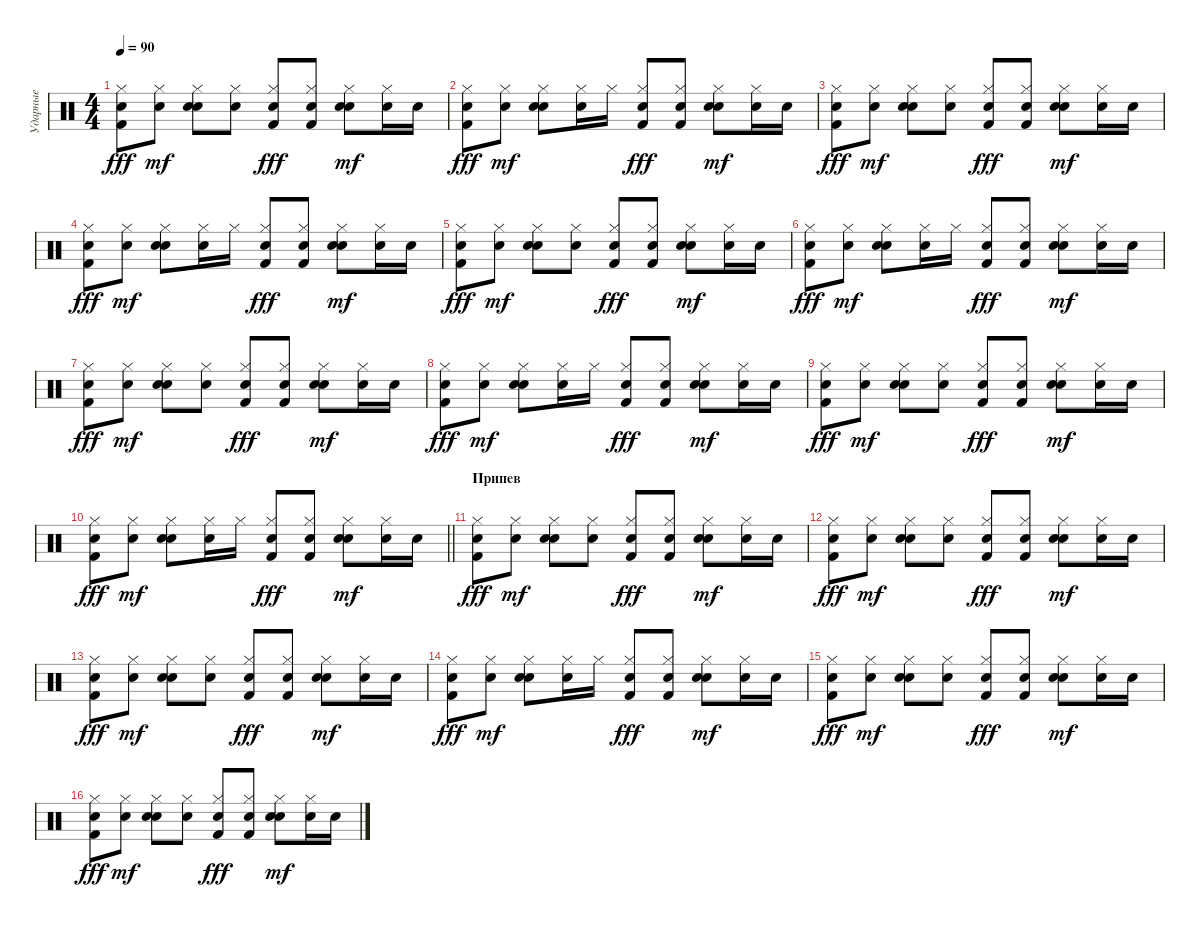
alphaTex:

\track ("Ударные" "Ударные") {instrument percussion}
\staff {score}
\articulation defaults
\ts (4 4)
\tempo 90
\clef neutral
\ks c
("Hand Clap (hit)" "Hi-Hat (closed)" "Kick (hit) 2").8{dy fff} ("Hand Clap (hit)" "Hi-Hat (closed)").8{dy mf} ("Hand Clap (hit)" "Hi-Hat (closed)" "Snare (hit) 2").8 ("Hand Clap (hit)" "Hi-Hat (closed)").8 ("Hand Clap (hit)" "Hi-Hat (closed)" "Kick (hit) 2").8{dy fff} ("Hand Clap (hit)" "Hi-Hat (closed)" "Kick (hit) 2").8 ("Hand Clap (hit)" "Hi-Hat (closed)" "Snare (hit) 2").8{dy mf} ("Hand Clap (hit)" "Hi-Hat (closed)").16 "Hand Clap (hit)".16 |
("Hand Clap (hit)" "Hi-Hat (closed)" "Kick (hit) 2").8{dy fff} ("Hand Clap (hit)" "Hi-Hat (closed)").8{dy mf} ("Hand Clap (hit)" "Hi-Hat (closed)" "Snare (hit) 2").8 ("Hand Clap (hit)" "Hi-Hat (closed)").16 "Hi-Hat (closed)".16 ("Hand Clap (hit)" "Hi-Hat (closed)" "Kick (hit) 2").8{dy fff} ("Hand Clap (hit)" "Hi-Hat (closed)" "Kick (hit) 2").8 ("Hand Clap (hit)" "Hi-Hat (closed)" "Snare (hit) 2").8{dy mf} ("Hand Clap (hit)" "Hi-Hat (closed)").16 "Hand Clap (hit)".16 |
("Hand Clap (hit)" "Hi-Hat (closed)" "Kick (hit) 2").8{dy fff} ("Hand Clap (hit)" "Hi-Hat (closed)").8{dy mf} ("Hand Clap (hit)" "Hi-Hat (closed)" "Snare (hit) 2").8 ("Hand Clap (hit)" "Hi-Hat (closed)").8 ("Hand Clap (hit)" "Hi-Hat (closed)" "Kick (hit) 2").8{dy fff} ("Hand Clap (hit)" "Hi-Hat (closed)" "Kick (hit) 2").8 ("Hand Clap (hit)" "Hi-Hat (closed)" "Snare (hit) 2").8{dy mf} ("Hand Clap (hit)" "Hi-Hat (closed)").16 "Hand Clap (hit)".16 |
("Hand Clap (hit)" "Hi-Hat (closed)" "Kick (hit) 2").8{dy fff} ("Hand Clap (hit)" "Hi-Hat (closed)").8{dy mf} ("Hand Clap (hit)" "Hi-Hat (closed)" "Snare (hit) 2").8 ("Hand Clap (hit)" "Hi-Hat (closed)").16 "Hi-Hat (closed)".16 ("Hand Clap (hit)" "Hi-Hat (closed)" "Kick (hit) 2").8{dy fff} ("Hand Clap (hit)" "Hi-Hat (closed)" "Kick (hit) 2").8 ("Hand Clap (hit)" "Hi-Hat (closed)" "Snare (hit) 2").8{dy mf} ("Hand Clap (hit)" "Hi-Hat (closed)").16 "Hand Clap (hit)".16 |
("Hand Clap (hit)" "Hi-Hat (closed)" "Kick (hit) 2").8{dy fff} ("Hand Clap (hit)" "Hi-Hat (closed)").8{dy mf} ("Hand Clap (hit)" "Hi-Hat (closed)" "Snare (hit) 2").8 ("Hand Clap (hit)" "Hi-Hat (closed)").8 ("Hand Clap (hit)" "Hi-Hat (closed)" "Kick (hit) 2").8{dy fff} ("Hand Clap (hit)" "Hi-Hat (closed)" "Kick (hit) 2").8 ("Hand Clap (hit)" "Hi-Hat (closed)" "Snare (hit) 2").8{dy mf} ("Hand Clap (hit)" "Hi-Hat (closed)").16 "Hand Clap (hit)".16 |
("Hand Clap (hit)" "Hi-Hat (closed)" "Kick (hit) 2").8{dy fff} ("Hand Clap (hit)" "Hi-Hat (closed)").8{dy mf} ("Hand Clap (hit)" "Hi-Hat (closed)" "Snare (hit) 2").8 ("Hand Clap (hit)" "Hi-Hat (closed)").16 "Hi-Hat (closed)".16 ("Hand Clap (hit)" "Hi-Hat (closed)" "Kick (hit) 2").8{dy fff} ("Hand Clap (hit)" "Hi-Hat (closed)" "Kick (hit) 2").8 ("Hand Clap (hit)" "Hi-Hat (closed)" "Snare (hit) 2").8{dy mf} ("Hand Clap (hit)" "Hi-Hat (closed)").16 "Hand Clap (hit)".16 |
("Hand Clap (hit)" "Hi-Hat (closed)" "Kick (hit) 2").8{dy fff} ("Hand Clap (hit)" "Hi-Hat (closed)").8{dy mf} ("Hand Clap (hit)" "Hi-Hat (closed)" "Snare (hit) 2").8 ("Hand Clap (hit)" "Hi-Hat (closed)").8 ("Hand Clap (hit)" "Hi-Hat (closed)" "Kick (hit) 2").8{dy fff} ("Hand Clap (hit)" "Hi-Hat (closed)" "Kick (hit) 2").8 ("Hand Clap (hit)" "Hi-Hat (closed)" "Snare (hit) 2").8{dy mf} ("Hand Clap (hit)" "Hi-Hat (closed)").16 "Hand Clap (hit)".16 |
("Hand Clap (hit)" "Hi-Hat (closed)" "Kick (hit) 2").8{dy fff} ("Hand Clap (hit)" "Hi-Hat (closed)").8{dy mf} ("Hand Clap (hit)" "Hi-Hat (closed)" "Snare (hit) 2").8 ("Hand Clap (hit)" "Hi-Hat (closed)").16 "Hi-Hat (closed)".16 ("Hand Clap (hit)" "Hi-Hat (closed)" "Kick (hit) 2").8{dy fff} ("Hand Clap (hit)" "Hi-Hat (closed)" "Kick (hit) 2").8 ("Hand Clap (hit)" "Hi-Hat (closed)" "Snare (hit) 2").8{dy mf} ("Hand Clap (hit)" "Hi-Hat (closed)").16 "Hand Clap (hit)".16 |
("Hand Clap (hit)" "Hi-Hat (closed)" "Kick (hit) 2").8{dy fff} ("Hand Clap (hit)" "Hi-Hat (closed)").8{dy mf} ("Hand Clap (hit)" "Hi-Hat (closed)" "Snare (hit) 2").8 ("Hand Clap (hit)" "Hi-Hat (closed)").8 ("Hand Clap (hit)" "Hi-Hat (closed)" "Kick (hit) 2").8{dy fff} ("Hand Clap (hit)" "Hi-Hat (closed)" "Kick (hit) 2").8 ("Hand Clap (hit)" "Hi-Hat (closed)" "Snare (hit) 2").8{dy mf} ("Hand Clap (hit)" "Hi-Hat (closed)").16 "Hand Clap (hit)".16 |
\barLineRight lightlight
("Hand Clap (hit)" "Hi-Hat (closed)" "Kick (hit) 2").8{dy fff} ("Hand Clap (hit)" "Hi-Hat (closed)").8{dy mf} ("Hand Clap (hit)" "Hi-Hat (closed)" "Snare (hit) 2").8 ("Hand Clap (hit)" "Hi-Hat (closed)").16 "Hi-Hat (closed)".16 ("Hand Clap (hit)" "Hi-Hat (closed)" "Kick (hit) 2").8{dy fff} ("Hand Clap (hit)" "Hi-Hat (closed)" "Kick (hit) 2").8 ("Hand Clap (hit)" "Hi-Hat (closed)" "Snare (hit) 2").8{dy mf} ("Hand Clap (hit)" "Hi-Hat (closed)").16 "Hand Clap (hit)".16 |
\section ("" "Припев")
("Hand Clap (hit)" "Hi-Hat (closed)" "Kick (hit) 2").8{dy fff} ("Hand Clap (hit)" "Hi-Hat (closed)").8{dy mf} ("Hand Clap (hit)" "Hi-Hat (closed)" "Snare (hit) 2").8 ("Hand Clap (hit)" "Hi-Hat (closed)").8 ("Hand Clap (hit)" "Hi-Hat (closed)" "Kick (hit) 2").8{dy fff} ("Hand Clap (hit)" "Hi-Hat (closed)" "Kick (hit) 2").8 ("Hand Clap (hit)" "Hi-Hat (closed)" "Snare (hit) 2").8{dy mf} ("Hand Clap (hit)" "Hi-Hat (closed)").16 "Hand Clap (hit)".16 |
("Hand Clap (hit)" "Hi-Hat (closed)" "Kick (hit) 2").8{dy fff} ("Hand Clap (hit)" "Hi-Hat (closed)").8{dy mf} ("Hand Clap (hit)" "Hi-Hat (closed)" "Snare (hit) 2").8 ("Hand Clap (hit)" "Hi-Hat (closed)").8 ("Hand Clap (hit)" "Hi-Hat (closed)" "Kick (hit) 2").8{dy fff} ("Hand Clap (hit)" "Hi-Hat (closed)" "Kick (hit) 2").8 ("Hand Clap (hit)" "Hi-Hat (closed)" "Snare (hit) 2").8{dy mf} ("Hand Clap (hit)" "Hi-Hat (closed)").16 "Hand Clap (hit)".16 |
("Hand Clap (hit)" "Hi-Hat (closed)" "Kick (hit) 2").8{dy fff} ("Hand Clap (hit)" "Hi-Hat (closed)").8{dy mf} ("Hand Clap (hit)" "Hi-Hat (closed)" "Snare (hit) 2").8 ("Hand Clap (hit)" "Hi-Hat (closed)").8 ("Hand Clap (hit)" "Hi-Hat (closed)" "Kick (hit) 2").8{dy fff} ("Hand Clap (hit)" "Hi-Hat (closed)" "Kick (hit) 2").8 ("Hand Clap (hit)" "Hi-Hat (closed)" "Snare (hit) 2").8{dy mf} ("Hand Clap (hit)" "Hi-Hat (closed)").16 "Hand Clap (hit)".16 |
("Hand Clap (hit)" "Hi-Hat (closed)" "Kick (hit) 2").8{dy fff} ("Hand Clap (hit)" "Hi-Hat (closed)").8{dy mf} ("Hand Clap (hit)" "Hi-Hat (closed)" "Snare (hit) 2").8 ("Hand Clap (hit)" "Hi-Hat (closed)").16 "Hi-Hat (closed)".16 ("Hand Clap (hit)" "Hi-Hat (closed)" "Kick (hit) 2").8{dy fff} ("Hand Clap (hit)" "Hi-Hat (closed)" "Kick (hit) 2").8 ("Hand Clap (hit)" "Hi-Hat (closed)" "Snare (hit) 2").8{dy mf} ("Hand Clap (hit)" "Hi-Hat (closed)").16 "Hand Clap (hit)".16 |
("Hand Clap (hit)" "Hi-Hat (closed)" "Kick (hit) 2").8{dy fff} ("Hand Clap (hit)" "Hi-Hat (closed)").8{dy mf} ("Hand Clap (hit)" "Hi-Hat (closed)" "Snare (hit) 2").8 ("Hand Clap (hit)" "Hi-Hat (closed)").8 ("Hand Clap (hit)" "Hi-Hat (closed)" "Kick (hit) 2").8{dy fff} ("Hand Clap (hit)" "Hi-Hat (closed)" "Kick (hit) 2").8 ("Hand Clap (hit)" "Hi-Hat (closed)" "Snare (hit) 2").8{dy mf} ("Hand Clap (hit)" "Hi-Hat (closed)").16 "Hand Clap (hit)".16 |
("Hand Clap (hit)" "Hi-Hat (closed)" "Kick (hit) 2").8{dy fff} ("Hand Clap (hit)" "Hi-Hat (closed)").8{dy mf} ("Hand Clap (hit)" "Hi-Hat (closed)" "Snare (hit) 2").8 ("Hand Clap (hit)" "Hi-Hat (closed)").8 ("Hand Clap (hit)" "Hi-Hat (closed)" "Kick (hit) 2").8{dy fff} ("Hand Clap (hit)" "Hi-Hat (closed)" "Kick (hit) 2").8 ("Hand Clap (hit)" "Hi-Hat (closed)" "Snare (hit) 2").8{dy mf} ("Hand Clap (hit)" "Hi-Hat (closed)").16 "Hand Clap (hit)".16
